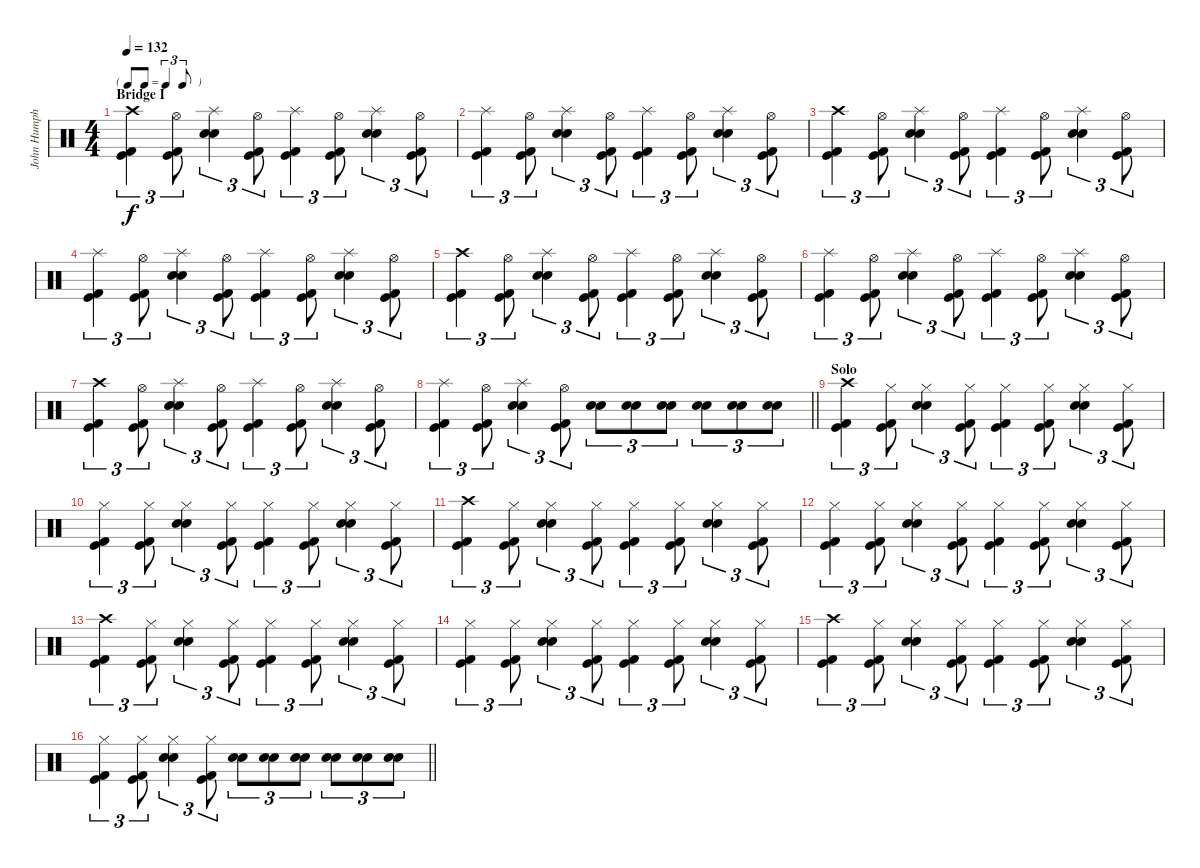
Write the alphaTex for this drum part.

\track ("John Humphrey" "John Humph") {instrument percussion}
\staff {score}
\articulation defaults
\ts (4 4)
\tf triplet8th
\section ("" "Bridge I")
\tempo 132
\clef neutral
\ks c
("Crash high (hit)" "Kick (hit) 2" "Kick (hit)").4{tu (3 2) dy f} ("Hi-Hat (open)" "Kick (hit) 2" "Kick (hit)").8{tu (3 2)} ("Splash (hit)" "Electric Snare (hit)" "Snare (hit) 2").4{tu (3 2)} ("Hi-Hat (open)" "Kick (hit) 2" "Kick (hit)").8{tu (3 2)} ("Splash (hit)" "Kick (hit) 2" "Kick (hit)").4{tu (3 2)} ("Hi-Hat (open)" "Kick (hit) 2" "Kick (hit)").8{tu (3 2)} ("Splash (hit)" "Electric Snare (hit)" "Snare (hit) 2").4{tu (3 2)} ("Hi-Hat (open)" "Kick (hit) 2" "Kick (hit)").8{tu (3 2)} |
("Splash (hit)" "Kick (hit) 2" "Kick (hit)").4{tu (3 2)} ("Hi-Hat (open)" "Kick (hit) 2" "Kick (hit)").8{tu (3 2)} ("Splash (hit)" "Electric Snare (hit)" "Snare (hit) 2").4{tu (3 2)} ("Hi-Hat (open)" "Kick (hit) 2" "Kick (hit)").8{tu (3 2)} ("Splash (hit)" "Kick (hit) 2" "Kick (hit)").4{tu (3 2)} ("Hi-Hat (open)" "Kick (hit) 2" "Kick (hit)").8{tu (3 2)} ("Splash (hit)" "Electric Snare (hit)" "Snare (hit) 2").4{tu (3 2)} ("Hi-Hat (open)" "Kick (hit) 2" "Kick (hit)").8{tu (3 2)} |
("Crash high (hit)" "Kick (hit) 2" "Kick (hit)").4{tu (3 2)} ("Hi-Hat (open)" "Kick (hit) 2" "Kick (hit)").8{tu (3 2)} ("Splash (hit)" "Electric Snare (hit)" "Snare (hit) 2").4{tu (3 2)} ("Hi-Hat (open)" "Kick (hit) 2" "Kick (hit)").8{tu (3 2)} ("Splash (hit)" "Kick (hit) 2" "Kick (hit)").4{tu (3 2)} ("Hi-Hat (open)" "Kick (hit) 2" "Kick (hit)").8{tu (3 2)} ("Splash (hit)" "Electric Snare (hit)" "Snare (hit) 2").4{tu (3 2)} ("Hi-Hat (open)" "Kick (hit) 2" "Kick (hit)").8{tu (3 2)} |
("Splash (hit)" "Kick (hit) 2" "Kick (hit)").4{tu (3 2)} ("Hi-Hat (open)" "Kick (hit) 2" "Kick (hit)").8{tu (3 2)} ("Splash (hit)" "Electric Snare (hit)" "Snare (hit) 2").4{tu (3 2)} ("Hi-Hat (open)" "Kick (hit) 2" "Kick (hit)").8{tu (3 2)} ("Splash (hit)" "Kick (hit) 2" "Kick (hit)").4{tu (3 2)} ("Hi-Hat (open)" "Kick (hit) 2" "Kick (hit)").8{tu (3 2)} ("Splash (hit)" "Electric Snare (hit)" "Snare (hit) 2").4{tu (3 2)} ("Hi-Hat (open)" "Kick (hit) 2" "Kick (hit)").8{tu (3 2)} |
("Crash high (hit)" "Kick (hit) 2" "Kick (hit)").4{tu (3 2)} ("Hi-Hat (open)" "Kick (hit) 2" "Kick (hit)").8{tu (3 2)} ("Splash (hit)" "Electric Snare (hit)" "Snare (hit) 2").4{tu (3 2)} ("Hi-Hat (open)" "Kick (hit) 2" "Kick (hit)").8{tu (3 2)} ("Splash (hit)" "Kick (hit) 2" "Kick (hit)").4{tu (3 2)} ("Hi-Hat (open)" "Kick (hit) 2" "Kick (hit)").8{tu (3 2)} ("Splash (hit)" "Electric Snare (hit)" "Snare (hit) 2").4{tu (3 2)} ("Hi-Hat (open)" "Kick (hit) 2" "Kick (hit)").8{tu (3 2)} |
("Splash (hit)" "Kick (hit) 2" "Kick (hit)").4{tu (3 2)} ("Hi-Hat (open)" "Kick (hit) 2" "Kick (hit)").8{tu (3 2)} ("Splash (hit)" "Electric Snare (hit)" "Snare (hit) 2").4{tu (3 2)} ("Hi-Hat (open)" "Kick (hit) 2" "Kick (hit)").8{tu (3 2)} ("Splash (hit)" "Kick (hit) 2" "Kick (hit)").4{tu (3 2)} ("Hi-Hat (open)" "Kick (hit) 2" "Kick (hit)").8{tu (3 2)} ("Splash (hit)" "Electric Snare (hit)" "Snare (hit) 2").4{tu (3 2)} ("Hi-Hat (open)" "Kick (hit) 2" "Kick (hit)").8{tu (3 2)} |
("Crash high (hit)" "Kick (hit) 2" "Kick (hit)").4{tu (3 2)} ("Hi-Hat (open)" "Kick (hit) 2" "Kick (hit)").8{tu (3 2)} ("Splash (hit)" "Electric Snare (hit)" "Snare (hit) 2").4{tu (3 2)} ("Hi-Hat (open)" "Kick (hit) 2" "Kick (hit)").8{tu (3 2)} ("Splash (hit)" "Kick (hit) 2" "Kick (hit)").4{tu (3 2)} ("Hi-Hat (open)" "Kick (hit) 2" "Kick (hit)").8{tu (3 2)} ("Splash (hit)" "Electric Snare (hit)" "Snare (hit) 2").4{tu (3 2)} ("Hi-Hat (open)" "Kick (hit) 2" "Kick (hit)").8{tu (3 2)} |
\barLineRight lightlight
("Splash (hit)" "Kick (hit) 2" "Kick (hit)").4{tu (3 2)} ("Hi-Hat (open)" "Kick (hit) 2" "Kick (hit)").8{tu (3 2)} ("Splash (hit)" "Electric Snare (hit)" "Snare (hit) 2").4{tu (3 2)} ("Hi-Hat (open)" "Kick (hit) 2" "Kick (hit)").8{tu (3 2)} ("Electric Snare (hit)" "Snare (hit) 2").8{tu (3 2)} ("Electric Snare (hit)" "Snare (hit) 2").8{tu (3 2)} ("Electric Snare (hit)" "Snare (hit) 2").8{tu (3 2)} ("Electric Snare (hit)" "Snare (hit) 2").8{tu (3 2)} ("Electric Snare (hit)" "Snare (hit) 2").8{tu (3 2)} ("Electric Snare (hit)" "Snare (hit) 2").8{tu (3 2)} |
\section ("" "Solo")
("Crash high (hit)" "Kick (hit) 2" "Kick (hit)").4{tu (3 2)} ("Hi-Hat (closed)" "Kick (hit) 2" "Kick (hit)").8{tu (3 2)} ("Hi-Hat (closed)" "Electric Snare (hit)" "Snare (hit) 2").4{tu (3 2)} ("Hi-Hat (closed)" "Kick (hit) 2" "Kick (hit)").8{tu (3 2)} ("Hi-Hat (closed)" "Kick (hit) 2" "Kick (hit)").4{tu (3 2)} ("Hi-Hat (closed)" "Kick (hit) 2" "Kick (hit)").8{tu (3 2)} ("Hi-Hat (closed)" "Electric Snare (hit)" "Snare (hit) 2").4{tu (3 2)} ("Hi-Hat (closed)" "Kick (hit) 2" "Kick (hit)").8{tu (3 2)} |
("Hi-Hat (closed)" "Kick (hit) 2" "Kick (hit)").4{tu (3 2)} ("Hi-Hat (closed)" "Kick (hit) 2" "Kick (hit)").8{tu (3 2)} ("Hi-Hat (closed)" "Electric Snare (hit)" "Snare (hit) 2").4{tu (3 2)} ("Hi-Hat (closed)" "Kick (hit) 2" "Kick (hit)").8{tu (3 2)} ("Hi-Hat (closed)" "Kick (hit) 2" "Kick (hit)").4{tu (3 2)} ("Hi-Hat (closed)" "Kick (hit) 2" "Kick (hit)").8{tu (3 2)} ("Hi-Hat (closed)" "Electric Snare (hit)" "Snare (hit) 2").4{tu (3 2)} ("Hi-Hat (closed)" "Kick (hit) 2" "Kick (hit)").8{tu (3 2)} |
("Crash high (hit)" "Kick (hit) 2" "Kick (hit)").4{tu (3 2)} ("Hi-Hat (closed)" "Kick (hit) 2" "Kick (hit)").8{tu (3 2)} ("Hi-Hat (closed)" "Electric Snare (hit)" "Snare (hit) 2").4{tu (3 2)} ("Hi-Hat (closed)" "Kick (hit) 2" "Kick (hit)").8{tu (3 2)} ("Hi-Hat (closed)" "Kick (hit) 2" "Kick (hit)").4{tu (3 2)} ("Hi-Hat (closed)" "Kick (hit) 2" "Kick (hit)").8{tu (3 2)} ("Hi-Hat (closed)" "Electric Snare (hit)" "Snare (hit) 2").4{tu (3 2)} ("Hi-Hat (closed)" "Kick (hit) 2" "Kick (hit)").8{tu (3 2)} |
("Hi-Hat (closed)" "Kick (hit) 2" "Kick (hit)").4{tu (3 2)} ("Hi-Hat (closed)" "Kick (hit) 2" "Kick (hit)").8{tu (3 2)} ("Hi-Hat (closed)" "Electric Snare (hit)" "Snare (hit) 2").4{tu (3 2)} ("Hi-Hat (closed)" "Kick (hit) 2" "Kick (hit)").8{tu (3 2)} ("Hi-Hat (closed)" "Kick (hit) 2" "Kick (hit)").4{tu (3 2)} ("Hi-Hat (closed)" "Kick (hit) 2" "Kick (hit)").8{tu (3 2)} ("Hi-Hat (closed)" "Electric Snare (hit)" "Snare (hit) 2").4{tu (3 2)} ("Hi-Hat (closed)" "Kick (hit) 2" "Kick (hit)").8{tu (3 2)} |
("Crash high (hit)" "Kick (hit) 2" "Kick (hit)").4{tu (3 2)} ("Hi-Hat (closed)" "Kick (hit) 2" "Kick (hit)").8{tu (3 2)} ("Hi-Hat (closed)" "Electric Snare (hit)" "Snare (hit) 2").4{tu (3 2)} ("Hi-Hat (closed)" "Kick (hit) 2" "Kick (hit)").8{tu (3 2)} ("Hi-Hat (closed)" "Kick (hit) 2" "Kick (hit)").4{tu (3 2)} ("Hi-Hat (closed)" "Kick (hit) 2" "Kick (hit)").8{tu (3 2)} ("Hi-Hat (closed)" "Electric Snare (hit)" "Snare (hit) 2").4{tu (3 2)} ("Hi-Hat (closed)" "Kick (hit) 2" "Kick (hit)").8{tu (3 2)} |
("Hi-Hat (closed)" "Kick (hit) 2" "Kick (hit)").4{tu (3 2)} ("Hi-Hat (closed)" "Kick (hit) 2" "Kick (hit)").8{tu (3 2)} ("Hi-Hat (closed)" "Electric Snare (hit)" "Snare (hit) 2").4{tu (3 2)} ("Hi-Hat (closed)" "Kick (hit) 2" "Kick (hit)").8{tu (3 2)} ("Hi-Hat (closed)" "Kick (hit) 2" "Kick (hit)").4{tu (3 2)} ("Hi-Hat (closed)" "Kick (hit) 2" "Kick (hit)").8{tu (3 2)} ("Hi-Hat (closed)" "Electric Snare (hit)" "Snare (hit) 2").4{tu (3 2)} ("Hi-Hat (closed)" "Kick (hit) 2" "Kick (hit)").8{tu (3 2)} |
("Crash high (hit)" "Kick (hit) 2" "Kick (hit)").4{tu (3 2)} ("Hi-Hat (closed)" "Kick (hit) 2" "Kick (hit)").8{tu (3 2)} ("Hi-Hat (closed)" "Electric Snare (hit)" "Snare (hit) 2").4{tu (3 2)} ("Hi-Hat (closed)" "Kick (hit) 2" "Kick (hit)").8{tu (3 2)} ("Hi-Hat (closed)" "Kick (hit) 2" "Kick (hit)").4{tu (3 2)} ("Hi-Hat (closed)" "Kick (hit) 2" "Kick (hit)").8{tu (3 2)} ("Hi-Hat (closed)" "Electric Snare (hit)" "Snare (hit) 2").4{tu (3 2)} ("Hi-Hat (closed)" "Kick (hit) 2" "Kick (hit)").8{tu (3 2)} |
\barLineRight lightlight
("Hi-Hat (closed)" "Kick (hit) 2" "Kick (hit)").4{tu (3 2)} ("Hi-Hat (closed)" "Kick (hit) 2" "Kick (hit)").8{tu (3 2)} ("Hi-Hat (closed)" "Electric Snare (hit)" "Snare (hit) 2").4{tu (3 2)} ("Hi-Hat (closed)" "Kick (hit) 2" "Kick (hit)").8{tu (3 2)} ("Electric Snare (hit)" "Snare (hit) 2").8{tu (3 2)} ("Electric Snare (hit)" "Snare (hit) 2").8{tu (3 2)} ("Electric Snare (hit)" "Snare (hit) 2").8{tu (3 2)} ("Electric Snare (hit)" "Snare (hit) 2").8{tu (3 2)} ("Electric Snare (hit)" "Snare (hit) 2").8{tu (3 2)} ("Electric Snare (hit)" "Snare (hit) 2").8{tu (3 2)}
